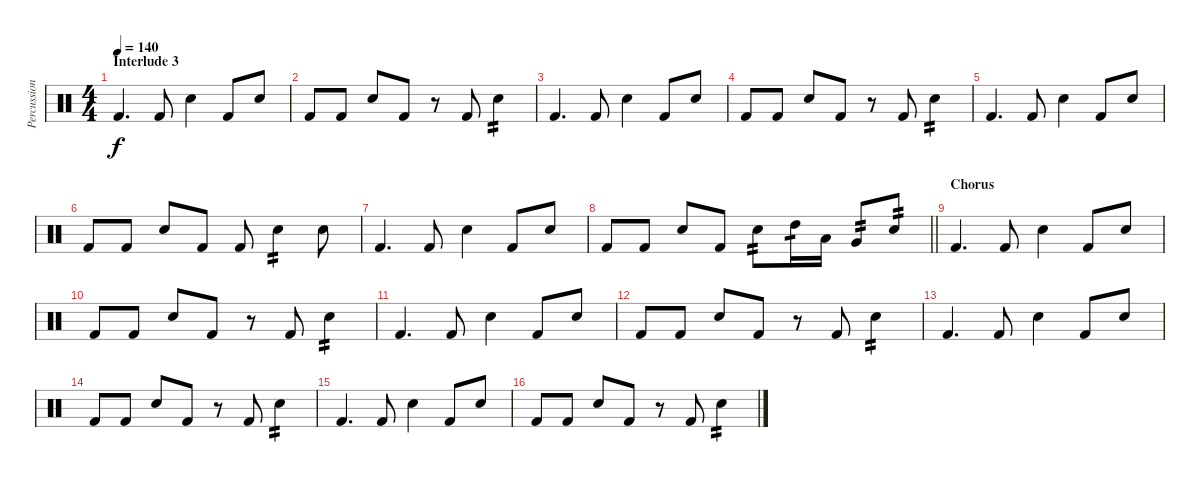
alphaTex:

\track ("Percussion" "Percussion") {instrument percussion}
\staff {score}
\articulation defaults
\ts (4 4)
\section ("" "Interlude 3")
\tempo 140
\clef neutral
\ks c "Kick (hit) 2".4{d dy f} "Kick (hit) 2".8 "Electric Snare (hit)".4 "Kick (hit) 2".8 "Electric Snare (hit)".8
|
"Kick (hit) 2".8 "Kick (hit) 2".8 "Electric Snare (hit)".8 "Kick (hit) 2".8 r.8 "Kick (hit) 2".8 "Electric Snare (hit)".4{tp 2} |
"Kick (hit) 2".4{d} "Kick (hit) 2".8 "Electric Snare (hit)".4 "Kick (hit) 2".8 "Electric Snare (hit)".8 |
"Kick (hit) 2".8 "Kick (hit) 2".8 "Electric Snare (hit)".8 "Kick (hit) 2".8 r.8 "Kick (hit) 2".8 "Electric Snare (hit)".4{tp 2} |
"Kick (hit) 2".4{d} "Kick (hit) 2".8 "Electric Snare (hit)".4 "Kick (hit) 2".8 "Electric Snare (hit)".8 |
"Kick (hit) 2".8 "Kick (hit) 2".8 "Electric Snare (hit)".8 "Kick (hit) 2".8 "Kick (hit) 2".8 "Electric Snare (hit)".4{tp 2} "Electric Snare (hit)".8 |
"Kick (hit) 2".4{d} "Kick (hit) 2".8 "Electric Snare (hit)".4 "Kick (hit) 2".8 "Electric Snare (hit)".8 |
\barLineRight lightlight "Kick (hit) 2".8 "Kick (hit) 2".8 "Electric Snare (hit)".8 "Kick (hit) 2".8 "Electric Snare (hit)".8{tp 2} "High Tom (hit)".16{tp 1} "Low Tom (hit)".16 "Very Low Tom (hit)".8{tp 2} "Electric Snare (hit)".8{tp 2}
|
\section ("" "Chorus")
"Kick (hit) 2".4{d} "Kick (hit) 2".8 "Electric Snare (hit)".4 "Kick (hit) 2".8 "Electric Snare (hit)".8 |
"Kick (hit) 2".8 "Kick (hit) 2".8 "Electric Snare (hit)".8 "Kick (hit) 2".8 r.8 "Kick (hit) 2".8 "Electric Snare (hit)".4{tp 2} |
"Kick (hit) 2".4{d} "Kick (hit) 2".8 "Electric Snare (hit)".4 "Kick (hit) 2".8 "Electric Snare (hit)".8 |
"Kick (hit) 2".8 "Kick (hit) 2".8 "Electric Snare (hit)".8 "Kick (hit) 2".8 r.8 "Kick (hit) 2".8 "Electric Snare (hit)".4{tp 2} |
"Kick (hit) 2".4{d} "Kick (hit) 2".8 "Electric Snare (hit)".4 "Kick (hit) 2".8 "Electric Snare (hit)".8 |
"Kick (hit) 2".8 "Kick (hit) 2".8 "Electric Snare (hit)".8 "Kick (hit) 2".8 r.8 "Kick (hit) 2".8 "Electric Snare (hit)".4{tp 2} |
"Kick (hit) 2".4{d} "Kick (hit) 2".8 "Electric Snare (hit)".4 "Kick (hit) 2".8 "Electric Snare (hit)".8 |
"Kick (hit) 2".8 "Kick (hit) 2".8 "Electric Snare (hit)".8 "Kick (hit) 2".8 r.8 "Kick (hit) 2".8 "Electric Snare (hit)".4{tp 2}
